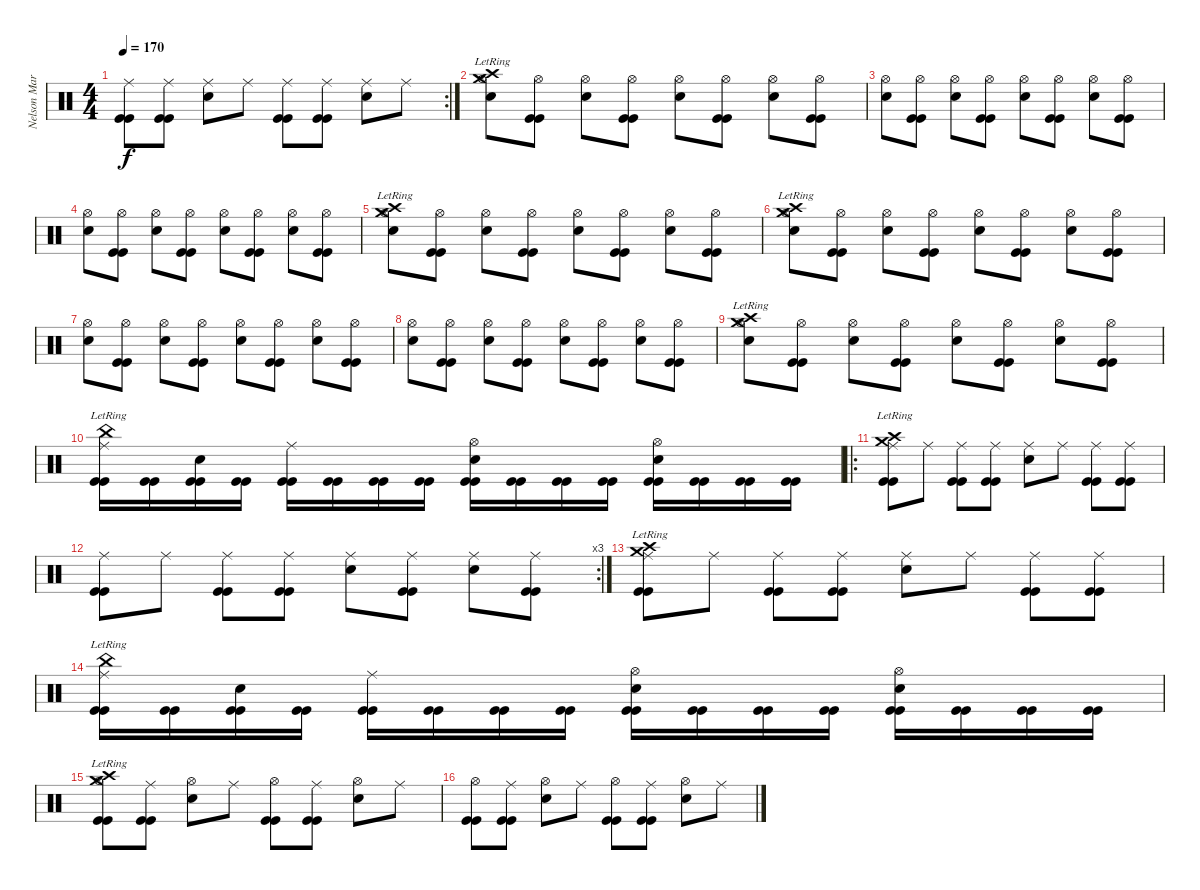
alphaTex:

\track ("Nelson Maria" "Nelson Mar") {instrument percussion}
\staff {score}
\articulation defaults
\rc 2
\ts (4 4)
\tempo 170
\clef neutral
\ks c
("Ride (middle)" "Kick (hit)" "Kick (hit)").8{dy f} ("Ride (middle)" "Kick (hit)" "Kick (hit)").8 ("Snare (hit) 2" "Ride (middle)").8 "Ride (middle)".8 ("Ride (middle)" "Kick (hit)" "Kick (hit)").8 ("Ride (middle)" "Kick (hit)" "Kick (hit)").8 ("Snare (hit) 2" "Ride (middle)").8 "Ride (middle)".8 |
("Crash high (hit)"{lr} "Crash medium (hit)"{lr} "Snare (hit) 2" "Hi-Hat (open)").8 ("Hi-Hat (open)" "Kick (hit)" "Kick (hit)").8 ("Snare (hit) 2" "Hi-Hat (open)").8 ("Hi-Hat (open)" "Kick (hit)" "Kick (hit)").8 ("Snare (hit) 2" "Hi-Hat (open)").8 ("Hi-Hat (open)" "Kick (hit)" "Kick (hit)").8 ("Snare (hit) 2" "Hi-Hat (open)").8 ("Hi-Hat (open)" "Kick (hit)" "Kick (hit)").8 |
("Snare (hit) 2" "Hi-Hat (open)").8 ("Hi-Hat (open)" "Kick (hit)" "Kick (hit)").8 ("Snare (hit) 2" "Hi-Hat (open)").8 ("Hi-Hat (open)" "Kick (hit)" "Kick (hit)").8 ("Snare (hit) 2" "Hi-Hat (open)").8 ("Hi-Hat (open)" "Kick (hit)" "Kick (hit)").8 ("Snare (hit) 2" "Hi-Hat (open)").8 ("Hi-Hat (open)" "Kick (hit)" "Kick (hit)").8 |
("Snare (hit) 2" "Hi-Hat (open)").8 ("Hi-Hat (open)" "Kick (hit)" "Kick (hit)").8 ("Snare (hit) 2" "Hi-Hat (open)").8 ("Hi-Hat (open)" "Kick (hit)" "Kick (hit)").8 ("Snare (hit) 2" "Hi-Hat (open)").8 ("Hi-Hat (open)" "Kick (hit)" "Kick (hit)").8 ("Snare (hit) 2" "Hi-Hat (open)").8 ("Hi-Hat (open)" "Kick (hit)" "Kick (hit)").8 |
("Crash high (hit)"{lr} "Crash medium (hit)"{lr} "Snare (hit) 2" "Hi-Hat (open)").8 ("Hi-Hat (open)" "Kick (hit)" "Kick (hit)").8 ("Snare (hit) 2" "Hi-Hat (open)").8 ("Hi-Hat (open)" "Kick (hit)" "Kick (hit)").8 ("Snare (hit) 2" "Hi-Hat (open)").8 ("Hi-Hat (open)" "Kick (hit)" "Kick (hit)").8 ("Snare (hit) 2" "Hi-Hat (open)").8 ("Hi-Hat (open)" "Kick (hit)" "Kick (hit)").8 |
("Crash high (hit)"{lr} "Crash medium (hit)"{lr} "Snare (hit) 2" "Hi-Hat (open)").8 ("Hi-Hat (open)" "Kick (hit)" "Kick (hit)").8 ("Snare (hit) 2" "Hi-Hat (open)").8 ("Hi-Hat (open)" "Kick (hit)" "Kick (hit)").8 ("Snare (hit) 2" "Hi-Hat (open)").8 ("Hi-Hat (open)" "Kick (hit)" "Kick (hit)").8 ("Snare (hit) 2" "Hi-Hat (open)").8 ("Hi-Hat (open)" "Kick (hit)" "Kick (hit)").8 |
("Snare (hit) 2" "Hi-Hat (open)").8 ("Hi-Hat (open)" "Kick (hit)" "Kick (hit)").8 ("Snare (hit) 2" "Hi-Hat (open)").8 ("Hi-Hat (open)" "Kick (hit)" "Kick (hit)").8 ("Snare (hit) 2" "Hi-Hat (open)").8 ("Hi-Hat (open)" "Kick (hit)" "Kick (hit)").8 ("Snare (hit) 2" "Hi-Hat (open)").8 ("Hi-Hat (open)" "Kick (hit)" "Kick (hit)").8 |
("Snare (hit) 2" "Hi-Hat (open)").8 ("Hi-Hat (open)" "Kick (hit)" "Kick (hit)").8 ("Snare (hit) 2" "Hi-Hat (open)").8 ("Hi-Hat (open)" "Kick (hit)" "Kick (hit)").8 ("Snare (hit) 2" "Hi-Hat (open)").8 ("Hi-Hat (open)" "Kick (hit)" "Kick (hit)").8 ("Snare (hit) 2" "Hi-Hat (open)").8 ("Hi-Hat (open)" "Kick (hit)" "Kick (hit)").8 |
("Crash high (hit)"{lr} "Crash medium (hit)"{lr} "Snare (hit) 2" "Hi-Hat (open)").8 ("Hi-Hat (open)" "Kick (hit)" "Kick (hit)").8 ("Snare (hit) 2" "Hi-Hat (open)").8 ("Hi-Hat (open)" "Kick (hit)" "Kick (hit)").8 ("Snare (hit) 2" "Hi-Hat (open)").8 ("Hi-Hat (open)" "Kick (hit)" "Kick (hit)").8 ("Snare (hit) 2" "Hi-Hat (open)").8 ("Hi-Hat (open)" "Kick (hit)" "Kick (hit)").8 |
("China (hit)"{lr} "Ride (middle)" "Kick (hit)" "Kick (hit)").16 ("Kick (hit)" "Kick (hit)").16 ("Snare (hit) 2" "Kick (hit)" "Kick (hit)").16 ("Kick (hit)" "Kick (hit)").16 ("Ride (middle)" "Kick (hit)" "Kick (hit)").16 ("Kick (hit)" "Kick (hit)").16 ("Kick (hit)" "Kick (hit)").16 ("Kick (hit)" "Kick (hit)").16 ("Snare (hit) 2" "Hi-Hat (open)" "Kick (hit)" "Kick (hit)").16 ("Kick (hit)" "Kick (hit)").16 ("Kick (hit)" "Kick (hit)").16 ("Kick (hit)" "Kick (hit)").16 ("Snare (hit) 2" "Hi-Hat (open)" "Kick (hit)" "Kick (hit)").16 ("Kick (hit)" "Kick (hit)").16 ("Kick (hit)" "Kick (hit)").16 ("Kick (hit)" "Kick (hit)").16 |
\ro
("Crash high (hit)"{lr} "Crash medium (hit)"{lr} "Ride (middle)" "Kick (hit)" "Kick (hit)").8 "Ride (middle)".8 ("Ride (middle)" "Kick (hit)" "Kick (hit)").8 ("Ride (middle)" "Kick (hit)" "Kick (hit)").8 ("Snare (hit) 2" "Ride (middle)").8 "Ride (middle)".8 ("Ride (middle)" "Kick (hit)" "Kick (hit)").8 ("Ride (middle)" "Kick (hit)" "Kick (hit)").8 |
\rc 3
("Ride (middle)" "Kick (hit)" "Kick (hit)").8 "Ride (middle)".8 ("Ride (middle)" "Kick (hit)" "Kick (hit)").8 ("Ride (middle)" "Kick (hit)" "Kick (hit)").8 ("Snare (hit) 2" "Ride (middle)").8 ("Ride (middle)" "Kick (hit)" "Kick (hit)").8 ("Snare (hit) 2" "Ride (middle)").8 ("Ride (middle)" "Kick (hit)" "Kick (hit)").8 |
("Crash high (hit)"{lr} "Crash medium (hit)"{lr} "Ride (middle)" "Kick (hit)" "Kick (hit)").8 "Ride (middle)".8 ("Ride (middle)" "Kick (hit)" "Kick (hit)").8 ("Ride (middle)" "Kick (hit)" "Kick (hit)").8 ("Snare (hit) 2" "Ride (middle)").8 "Ride (middle)".8 ("Ride (middle)" "Kick (hit)" "Kick (hit)").8 ("Ride (middle)" "Kick (hit)" "Kick (hit)").8 |
("China (hit)"{lr} "Ride (middle)" "Kick (hit)" "Kick (hit)").16 ("Kick (hit)" "Kick (hit)").16 ("Snare (hit) 2" "Kick (hit)" "Kick (hit)").16 ("Kick (hit)" "Kick (hit)").16 ("Ride (middle)" "Kick (hit)" "Kick (hit)").16 ("Kick (hit)" "Kick (hit)").16 ("Kick (hit)" "Kick (hit)").16 ("Kick (hit)" "Kick (hit)").16 ("Snare (hit) 2" "Hi-Hat (open)" "Kick (hit)" "Kick (hit)").16 ("Kick (hit)" "Kick (hit)").16 ("Kick (hit)" "Kick (hit)").16 ("Kick (hit)" "Kick (hit)").16 ("Snare (hit) 2" "Hi-Hat (open)" "Kick (hit)" "Kick (hit)").16 ("Kick (hit)" "Kick (hit)").16 ("Kick (hit)" "Kick (hit)").16 ("Kick (hit)" "Kick (hit)").16 |
("Crash high (hit)"{lr} "Crash medium (hit)"{lr} "Hi-Hat (open)" "Kick (hit)" "Kick (hit)").8 ("Ride (middle)" "Kick (hit)" "Kick (hit)").8 ("Snare (hit) 2" "Hi-Hat (open)").8 "Ride (middle)".8 ("Hi-Hat (open)" "Kick (hit)" "Kick (hit)").8 ("Ride (middle)" "Kick (hit)" "Kick (hit)").8 ("Snare (hit) 2" "Hi-Hat (open)").8 "Ride (middle)".8 |
("Hi-Hat (open)" "Kick (hit)" "Kick (hit)").8 ("Ride (middle)" "Kick (hit)" "Kick (hit)").8 ("Snare (hit) 2" "Hi-Hat (open)").8 "Ride (middle)".8 ("Hi-Hat (open)" "Kick (hit)" "Kick (hit)").8 ("Ride (middle)" "Kick (hit)" "Kick (hit)").8 ("Snare (hit) 2" "Hi-Hat (open)").8 "Ride (middle)".8
